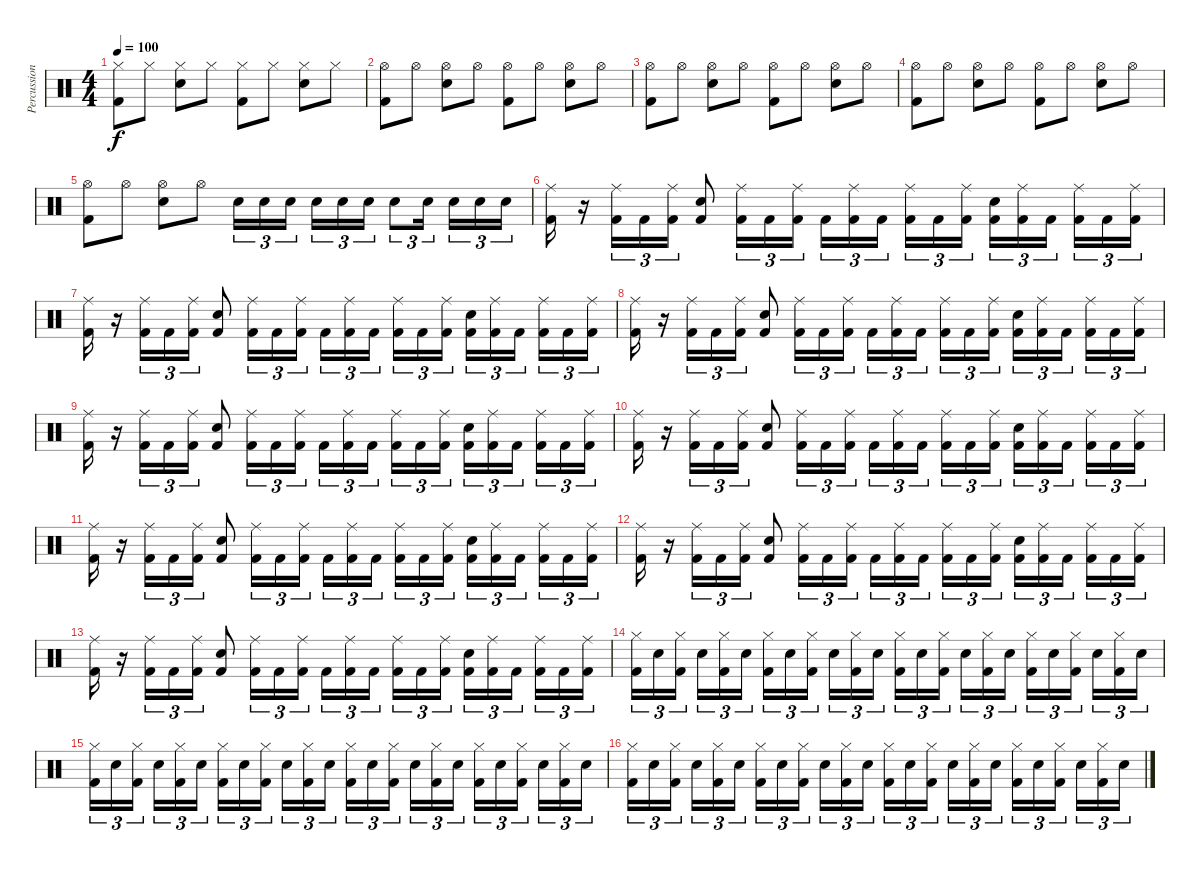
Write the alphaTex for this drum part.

\track ("Percussion" "Percussion") {instrument percussion}
\staff {score}
\articulation defaults
\ts (4 4)
\tempo 100
\clef neutral
\ks c
("Hi-Hat (closed)" "Kick (hit) 2").8{dy f} "Hi-Hat (closed)".8 ("Hi-Hat (closed)" "Snare (hit) 2").8 "Hi-Hat (closed)".8 ("Hi-Hat (closed)" "Kick (hit) 2").8 "Hi-Hat (closed)".8 ("Hi-Hat (closed)" "Snare (hit) 2").8 "Hi-Hat (closed)".8 |
("Hi-Hat (open)" "Kick (hit) 2").8 "Hi-Hat (open)".8 ("Hi-Hat (open)" "Snare (hit) 2").8 "Hi-Hat (open)".8 ("Hi-Hat (open)" "Kick (hit) 2").8 "Hi-Hat (open)".8 ("Hi-Hat (open)" "Snare (hit) 2").8 "Hi-Hat (open)".8 |
("Hi-Hat (open)" "Kick (hit) 2").8 "Hi-Hat (open)".8 ("Hi-Hat (open)" "Snare (hit) 2").8 "Hi-Hat (open)".8 ("Hi-Hat (open)" "Kick (hit) 2").8 "Hi-Hat (open)".8 ("Hi-Hat (open)" "Snare (hit) 2").8 "Hi-Hat (open)".8 |
("Hi-Hat (open)" "Kick (hit) 2").8 "Hi-Hat (open)".8 ("Hi-Hat (open)" "Snare (hit) 2").8 "Hi-Hat (open)".8 ("Hi-Hat (open)" "Kick (hit) 2").8 "Hi-Hat (open)".8 ("Hi-Hat (open)" "Snare (hit) 2").8 "Hi-Hat (open)".8 |
("Hi-Hat (open)" "Kick (hit) 2").8 "Hi-Hat (open)".8 ("Hi-Hat (open)" "Snare (hit) 2").8 "Hi-Hat (open)".8 "Snare (hit) 2".16{tu (3 2)} "Snare (hit) 2".16{tu (3 2)} "Snare (hit) 2".16{tu (3 2) beam splitsecondary} "Snare (hit) 2".16{tu (3 2)} "Snare (hit) 2".16{tu (3 2)} "Snare (hit) 2".16{tu (3 2)} "Snare (hit) 2".8{tu (3 2)} "Snare (hit) 2".16{tu (3 2) beam splitsecondary} "Snare (hit) 2".16{tu (3 2)} "Snare (hit) 2".16{tu (3 2)} "Snare (hit) 2".16{tu (3 2)} |
("Ride (middle)" "Kick (hit) 2").16 r.16 ("Ride (middle)" "Kick (hit) 2").16{tu (3 2)} "Kick (hit) 2".16{tu (3 2)} ("Ride (middle)" "Kick (hit) 2").16{tu (3 2)} ("Snare (hit) 2" "Kick (hit) 2").8 ("Ride (middle)" "Kick (hit) 2").16{tu (3 2)} "Kick (hit) 2".16{tu (3 2)} ("Ride (middle)" "Kick (hit) 2").16{tu (3 2)} "Kick (hit) 2".16{tu (3 2)} ("Ride (middle)" "Kick (hit) 2").16{tu (3 2)} "Kick (hit) 2".16{tu (3 2) beam splitsecondary} ("Ride (middle)" "Kick (hit) 2").16{tu (3 2)} "Kick (hit) 2".16{tu (3 2)} ("Ride (middle)" "Kick (hit) 2").16{tu (3 2)} ("Snare (hit) 2" "Kick (hit) 2").16{tu (3 2)} ("Ride (middle)" "Kick (hit) 2").16{tu (3 2)} "Kick (hit) 2".16{tu (3 2) beam splitsecondary} ("Ride (middle)" "Kick (hit) 2").16{tu (3 2)} "Kick (hit) 2".16{tu (3 2)} ("Ride (middle)" "Kick (hit) 2").16{tu (3 2)} |
("Ride (middle)" "Kick (hit) 2").16 r.16 ("Ride (middle)" "Kick (hit) 2").16{tu (3 2)} "Kick (hit) 2".16{tu (3 2)} ("Ride (middle)" "Kick (hit) 2").16{tu (3 2)} ("Snare (hit) 2" "Kick (hit) 2").8 ("Ride (middle)" "Kick (hit) 2").16{tu (3 2)} "Kick (hit) 2".16{tu (3 2)} ("Ride (middle)" "Kick (hit) 2").16{tu (3 2)} "Kick (hit) 2".16{tu (3 2)} ("Ride (middle)" "Kick (hit) 2").16{tu (3 2)} "Kick (hit) 2".16{tu (3 2) beam splitsecondary} ("Ride (middle)" "Kick (hit) 2").16{tu (3 2)} "Kick (hit) 2".16{tu (3 2)} ("Ride (middle)" "Kick (hit) 2").16{tu (3 2)} ("Snare (hit) 2" "Kick (hit) 2").16{tu (3 2)} ("Ride (middle)" "Kick (hit) 2").16{tu (3 2)} "Kick (hit) 2".16{tu (3 2) beam splitsecondary} ("Ride (middle)" "Kick (hit) 2").16{tu (3 2)} "Kick (hit) 2".16{tu (3 2)} ("Ride (middle)" "Kick (hit) 2").16{tu (3 2)} |
("Ride (middle)" "Kick (hit) 2").16 r.16 ("Ride (middle)" "Kick (hit) 2").16{tu (3 2)} "Kick (hit) 2".16{tu (3 2)} ("Ride (middle)" "Kick (hit) 2").16{tu (3 2)} ("Snare (hit) 2" "Kick (hit) 2").8 ("Ride (middle)" "Kick (hit) 2").16{tu (3 2)} "Kick (hit) 2".16{tu (3 2)} ("Ride (middle)" "Kick (hit) 2").16{tu (3 2)} "Kick (hit) 2".16{tu (3 2)} ("Ride (middle)" "Kick (hit) 2").16{tu (3 2)} "Kick (hit) 2".16{tu (3 2) beam splitsecondary} ("Ride (middle)" "Kick (hit) 2").16{tu (3 2)} "Kick (hit) 2".16{tu (3 2)} ("Ride (middle)" "Kick (hit) 2").16{tu (3 2)} ("Snare (hit) 2" "Kick (hit) 2").16{tu (3 2)} ("Ride (middle)" "Kick (hit) 2").16{tu (3 2)} "Kick (hit) 2".16{tu (3 2) beam splitsecondary} ("Ride (middle)" "Kick (hit) 2").16{tu (3 2)} "Kick (hit) 2".16{tu (3 2)} ("Ride (middle)" "Kick (hit) 2").16{tu (3 2)} |
("Ride (middle)" "Kick (hit) 2").16 r.16 ("Ride (middle)" "Kick (hit) 2").16{tu (3 2)} "Kick (hit) 2".16{tu (3 2)} ("Ride (middle)" "Kick (hit) 2").16{tu (3 2)} ("Snare (hit) 2" "Kick (hit) 2").8 ("Ride (middle)" "Kick (hit) 2").16{tu (3 2)} "Kick (hit) 2".16{tu (3 2)} ("Ride (middle)" "Kick (hit) 2").16{tu (3 2)} "Kick (hit) 2".16{tu (3 2)} ("Ride (middle)" "Kick (hit) 2").16{tu (3 2)} "Kick (hit) 2".16{tu (3 2) beam splitsecondary} ("Ride (middle)" "Kick (hit) 2").16{tu (3 2)} "Kick (hit) 2".16{tu (3 2)} ("Ride (middle)" "Kick (hit) 2").16{tu (3 2)} ("Snare (hit) 2" "Kick (hit) 2").16{tu (3 2)} ("Ride (middle)" "Kick (hit) 2").16{tu (3 2)} "Kick (hit) 2".16{tu (3 2) beam splitsecondary} ("Ride (middle)" "Kick (hit) 2").16{tu (3 2)} "Kick (hit) 2".16{tu (3 2)} ("Ride (middle)" "Kick (hit) 2").16{tu (3 2)} |
("Ride (middle)" "Kick (hit) 2").16 r.16 ("Ride (middle)" "Kick (hit) 2").16{tu (3 2)} "Kick (hit) 2".16{tu (3 2)} ("Ride (middle)" "Kick (hit) 2").16{tu (3 2)} ("Snare (hit) 2" "Kick (hit) 2").8 ("Ride (middle)" "Kick (hit) 2").16{tu (3 2)} "Kick (hit) 2".16{tu (3 2)} ("Ride (middle)" "Kick (hit) 2").16{tu (3 2)} "Kick (hit) 2".16{tu (3 2)} ("Ride (middle)" "Kick (hit) 2").16{tu (3 2)} "Kick (hit) 2".16{tu (3 2) beam splitsecondary} ("Ride (middle)" "Kick (hit) 2").16{tu (3 2)} "Kick (hit) 2".16{tu (3 2)} ("Ride (middle)" "Kick (hit) 2").16{tu (3 2)} ("Snare (hit) 2" "Kick (hit) 2").16{tu (3 2)} ("Ride (middle)" "Kick (hit) 2").16{tu (3 2)} "Kick (hit) 2".16{tu (3 2) beam splitsecondary} ("Ride (middle)" "Kick (hit) 2").16{tu (3 2)} "Kick (hit) 2".16{tu (3 2)} ("Ride (middle)" "Kick (hit) 2").16{tu (3 2)} |
("Ride (middle)" "Kick (hit) 2").16 r.16 ("Ride (middle)" "Kick (hit) 2").16{tu (3 2)} "Kick (hit) 2".16{tu (3 2)} ("Ride (middle)" "Kick (hit) 2").16{tu (3 2)} ("Snare (hit) 2" "Kick (hit) 2").8 ("Ride (middle)" "Kick (hit) 2").16{tu (3 2)} "Kick (hit) 2".16{tu (3 2)} ("Ride (middle)" "Kick (hit) 2").16{tu (3 2)} "Kick (hit) 2".16{tu (3 2)} ("Ride (middle)" "Kick (hit) 2").16{tu (3 2)} "Kick (hit) 2".16{tu (3 2) beam splitsecondary} ("Ride (middle)" "Kick (hit) 2").16{tu (3 2)} "Kick (hit) 2".16{tu (3 2)} ("Ride (middle)" "Kick (hit) 2").16{tu (3 2)} ("Snare (hit) 2" "Kick (hit) 2").16{tu (3 2)} ("Ride (middle)" "Kick (hit) 2").16{tu (3 2)} "Kick (hit) 2".16{tu (3 2) beam splitsecondary} ("Ride (middle)" "Kick (hit) 2").16{tu (3 2)} "Kick (hit) 2".16{tu (3 2)} ("Ride (middle)" "Kick (hit) 2").16{tu (3 2)} |
("Ride (middle)" "Kick (hit) 2").16 r.16 ("Ride (middle)" "Kick (hit) 2").16{tu (3 2)} "Kick (hit) 2".16{tu (3 2)} ("Ride (middle)" "Kick (hit) 2").16{tu (3 2)} ("Snare (hit) 2" "Kick (hit) 2").8 ("Ride (middle)" "Kick (hit) 2").16{tu (3 2)} "Kick (hit) 2".16{tu (3 2)} ("Ride (middle)" "Kick (hit) 2").16{tu (3 2)} "Kick (hit) 2".16{tu (3 2)} ("Ride (middle)" "Kick (hit) 2").16{tu (3 2)} "Kick (hit) 2".16{tu (3 2) beam splitsecondary} ("Ride (middle)" "Kick (hit) 2").16{tu (3 2)} "Kick (hit) 2".16{tu (3 2)} ("Ride (middle)" "Kick (hit) 2").16{tu (3 2)} ("Snare (hit) 2" "Kick (hit) 2").16{tu (3 2)} ("Ride (middle)" "Kick (hit) 2").16{tu (3 2)} "Kick (hit) 2".16{tu (3 2) beam splitsecondary} ("Ride (middle)" "Kick (hit) 2").16{tu (3 2)} "Kick (hit) 2".16{tu (3 2)} ("Ride (middle)" "Kick (hit) 2").16{tu (3 2)} |
("Ride (middle)" "Kick (hit) 2").16 r.16 ("Ride (middle)" "Kick (hit) 2").16{tu (3 2)} "Kick (hit) 2".16{tu (3 2)} ("Ride (middle)" "Kick (hit) 2").16{tu (3 2)} ("Snare (hit) 2" "Kick (hit) 2").8 ("Ride (middle)" "Kick (hit) 2").16{tu (3 2)} "Kick (hit) 2".16{tu (3 2)} ("Ride (middle)" "Kick (hit) 2").16{tu (3 2)} "Kick (hit) 2".16{tu (3 2)} ("Ride (middle)" "Kick (hit) 2").16{tu (3 2)} "Kick (hit) 2".16{tu (3 2) beam splitsecondary} ("Ride (middle)" "Kick (hit) 2").16{tu (3 2)} "Kick (hit) 2".16{tu (3 2)} ("Ride (middle)" "Kick (hit) 2").16{tu (3 2)} ("Snare (hit) 2" "Kick (hit) 2").16{tu (3 2)} ("Ride (middle)" "Kick (hit) 2").16{tu (3 2)} "Kick (hit) 2".16{tu (3 2) beam splitsecondary} ("Ride (middle)" "Kick (hit) 2").16{tu (3 2)} "Kick (hit) 2".16{tu (3 2)} ("Ride (middle)" "Kick (hit) 2").16{tu (3 2)} |
("Hi-Hat (closed)" "Kick (hit) 2").16{tu (3 2)} "Snare (hit) 2".16{tu (3 2)} ("Hi-Hat (closed)" "Kick (hit) 2").16{tu (3 2) beam splitsecondary} "Snare (hit) 2".16{tu (3 2)} ("Hi-Hat (closed)" "Kick (hit) 2").16{tu (3 2)} "Snare (hit) 2".16{tu (3 2)} ("Hi-Hat (closed)" "Kick (hit) 2").16{tu (3 2)} "Snare (hit) 2".16{tu (3 2)} ("Hi-Hat (closed)" "Kick (hit) 2").16{tu (3 2) beam splitsecondary} "Snare (hit) 2".16{tu (3 2)} ("Hi-Hat (closed)" "Kick (hit) 2").16{tu (3 2)} "Snare (hit) 2".16{tu (3 2)} ("Hi-Hat (closed)" "Kick (hit) 2").16{tu (3 2)} "Snare (hit) 2".16{tu (3 2)} ("Hi-Hat (closed)" "Kick (hit) 2").16{tu (3 2) beam splitsecondary} "Snare (hit) 2".16{tu (3 2)} ("Hi-Hat (closed)" "Kick (hit) 2").16{tu (3 2)} "Snare (hit) 2".16{tu (3 2)} ("Hi-Hat (closed)" "Kick (hit) 2").16{tu (3 2)} "Snare (hit) 2".16{tu (3 2)} ("Hi-Hat (closed)" "Kick (hit) 2").16{tu (3 2) beam splitsecondary} "Snare (hit) 2".16{tu (3 2)} ("Hi-Hat (closed)" "Kick (hit) 2").16{tu (3 2)} "Snare (hit) 2".16{tu (3 2)} |
("Hi-Hat (closed)" "Kick (hit) 2").16{tu (3 2)} "Snare (hit) 2".16{tu (3 2)} ("Hi-Hat (closed)" "Kick (hit) 2").16{tu (3 2) beam splitsecondary} "Snare (hit) 2".16{tu (3 2)} ("Hi-Hat (closed)" "Kick (hit) 2").16{tu (3 2)} "Snare (hit) 2".16{tu (3 2)} ("Hi-Hat (closed)" "Kick (hit) 2").16{tu (3 2)} "Snare (hit) 2".16{tu (3 2)} ("Hi-Hat (closed)" "Kick (hit) 2").16{tu (3 2) beam splitsecondary} "Snare (hit) 2".16{tu (3 2)} ("Hi-Hat (closed)" "Kick (hit) 2").16{tu (3 2)} "Snare (hit) 2".16{tu (3 2)} ("Hi-Hat (closed)" "Kick (hit) 2").16{tu (3 2)} "Snare (hit) 2".16{tu (3 2)} ("Hi-Hat (closed)" "Kick (hit) 2").16{tu (3 2) beam splitsecondary} "Snare (hit) 2".16{tu (3 2)} ("Hi-Hat (closed)" "Kick (hit) 2").16{tu (3 2)} "Snare (hit) 2".16{tu (3 2)} ("Hi-Hat (closed)" "Kick (hit) 2").16{tu (3 2)} "Snare (hit) 2".16{tu (3 2)} ("Hi-Hat (closed)" "Kick (hit) 2").16{tu (3 2) beam splitsecondary} "Snare (hit) 2".16{tu (3 2)} ("Hi-Hat (closed)" "Kick (hit) 2").16{tu (3 2)} "Snare (hit) 2".16{tu (3 2)} |
("Hi-Hat (closed)" "Kick (hit) 2").16{tu (3 2)} "Snare (hit) 2".16{tu (3 2)} ("Hi-Hat (closed)" "Kick (hit) 2").16{tu (3 2) beam splitsecondary} "Snare (hit) 2".16{tu (3 2)} ("Hi-Hat (closed)" "Kick (hit) 2").16{tu (3 2)} "Snare (hit) 2".16{tu (3 2)} ("Hi-Hat (closed)" "Kick (hit) 2").16{tu (3 2)} "Snare (hit) 2".16{tu (3 2)} ("Hi-Hat (closed)" "Kick (hit) 2").16{tu (3 2) beam splitsecondary} "Snare (hit) 2".16{tu (3 2)} ("Hi-Hat (closed)" "Kick (hit) 2").16{tu (3 2)} "Snare (hit) 2".16{tu (3 2)} ("Hi-Hat (closed)" "Kick (hit) 2").16{tu (3 2)} "Snare (hit) 2".16{tu (3 2)} ("Hi-Hat (closed)" "Kick (hit) 2").16{tu (3 2) beam splitsecondary} "Snare (hit) 2".16{tu (3 2)} ("Hi-Hat (closed)" "Kick (hit) 2").16{tu (3 2)} "Snare (hit) 2".16{tu (3 2)} ("Hi-Hat (closed)" "Kick (hit) 2").16{tu (3 2)} "Snare (hit) 2".16{tu (3 2)} ("Hi-Hat (closed)" "Kick (hit) 2").16{tu (3 2) beam splitsecondary} "Snare (hit) 2".16{tu (3 2)} ("Hi-Hat (closed)" "Kick (hit) 2").16{tu (3 2)} "Snare (hit) 2".16{tu (3 2)}
